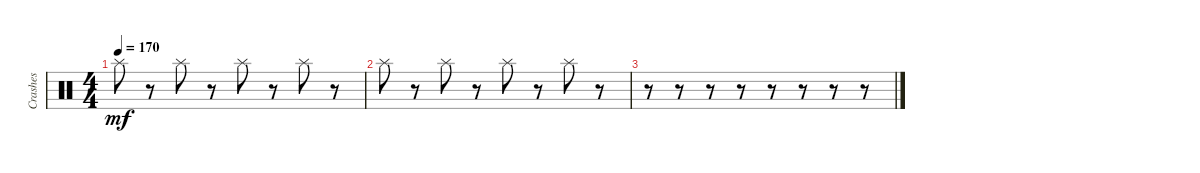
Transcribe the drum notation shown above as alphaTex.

\track ("Crashes" "Crashes") {instrument percussion}
\staff {score}
\articulation defaults
\ts (4 4)
\tempo 170
\clef neutral
\ks c "Splash (hit)".8{dy mf}
r.8 "Splash (hit)".8 r.8 "Splash (hit)".8 r.8 "Splash (hit)".8 r.8 |
"Splash (hit)".8 r.8 "Splash (hit)".8 r.8 "Splash (hit)".8 r.8 "Splash (hit)".8 r.8 |
r.8 r.8 r.8 r.8 r.8 r.8 r.8 r.8
